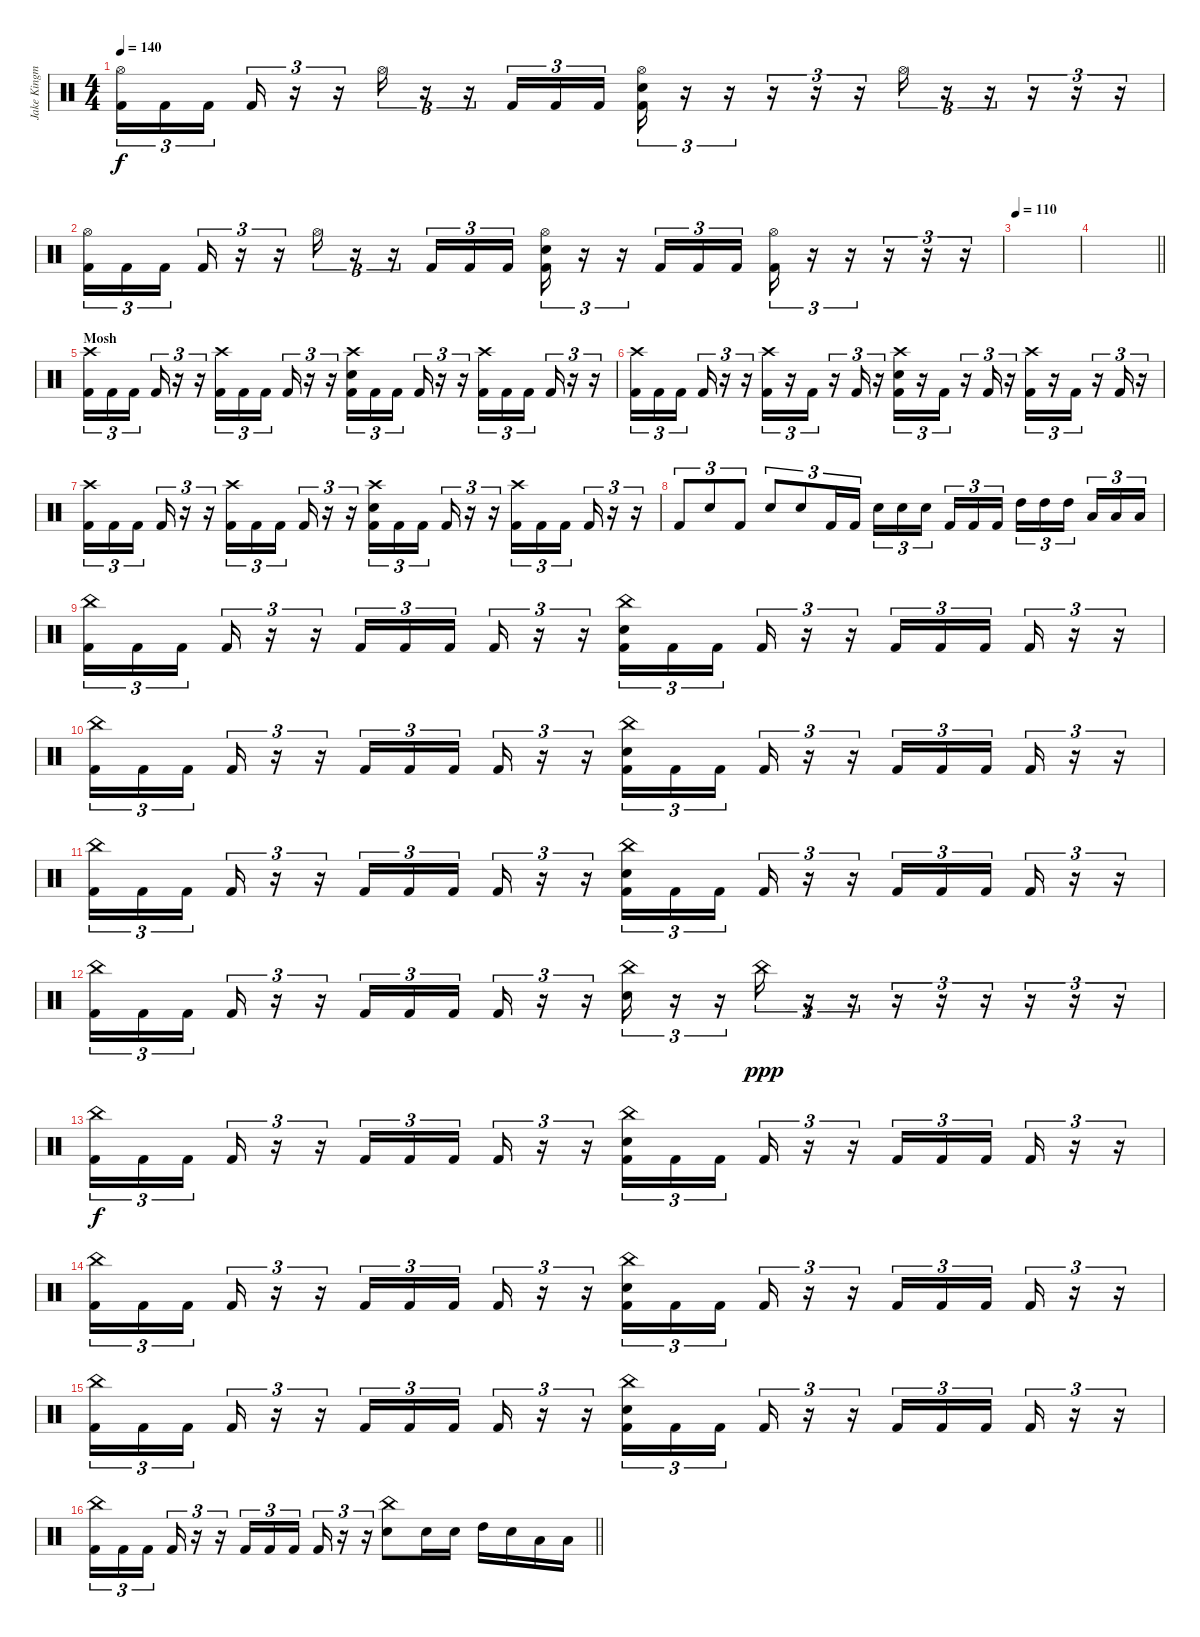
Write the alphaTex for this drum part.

\track ("Jake Kingman (Drums)" "Jake Kingm") {instrument percussion}
\staff {score}
\articulation defaults
\ts (4 4)
\tempo 140
\clef neutral
\ks c
("Hi-Hat (open)" "Kick (hit) 2").16{tu (3 2) dy f} "Kick (hit) 2".16{tu (3 2)} "Kick (hit) 2".16{tu (3 2) beam splitsecondary} "Kick (hit) 2".16{tu (3 2)} r.16{tu (3 2)} r.16{tu (3 2)} "Hi-Hat (open)".16{tu (3 2)} r.16{tu (3 2)} r.16{tu (3 2)} "Kick (hit) 2".16{tu (3 2)} "Kick (hit) 2".16{tu (3 2)} "Kick (hit) 2".16{tu (3 2)} ("Hi-Hat (open)" "Electric Snare (hit)" "Kick (hit) 2").16{tu (3 2)} r.16{tu (3 2)} r.16{tu (3 2)} r.16{tu (3 2)} r.16{tu (3 2)} r.16{tu (3 2)} "Hi-Hat (open)".16{tu (3 2)} r.16{tu (3 2)} r.16{tu (3 2)} r.16{tu (3 2)} r.16{tu (3 2)} r.16{tu (3 2)} |
("Hi-Hat (open)" "Kick (hit) 2").16{tu (3 2)} "Kick (hit) 2".16{tu (3 2)} "Kick (hit) 2".16{tu (3 2) beam splitsecondary} "Kick (hit) 2".16{tu (3 2)} r.16{tu (3 2)} r.16{tu (3 2)} "Hi-Hat (open)".16{tu (3 2)} r.16{tu (3 2)} r.16{tu (3 2)} "Kick (hit) 2".16{tu (3 2)} "Kick (hit) 2".16{tu (3 2)} "Kick (hit) 2".16{tu (3 2)} ("Hi-Hat (open)" "Electric Snare (hit)" "Kick (hit) 2").16{tu (3 2)} r.16{tu (3 2)} r.16{tu (3 2)} "Kick (hit) 2".16{tu (3 2)} "Kick (hit) 2".16{tu (3 2)} "Kick (hit) 2".16{tu (3 2)} ("Hi-Hat (open)" "Kick (hit) 2").16{tu (3 2)} r.16{tu (3 2)} r.16{tu (3 2)} r.16{tu (3 2)} r.16{tu (3 2)} r.16{tu (3 2)} |
\tempo 110
|
\barLineRight lightlight
|
\section ("" "Mosh")
("Crash high (hit)" "Kick (hit) 2").16{tu (3 2)} "Kick (hit) 2".16{tu (3 2)} "Kick (hit) 2".16{tu (3 2) beam splitsecondary} "Kick (hit) 2".16{tu (3 2)} r.16{tu (3 2)} r.16{tu (3 2)} ("Crash high (hit)" "Kick (hit) 2").16{tu (3 2)} "Kick (hit) 2".16{tu (3 2)} "Kick (hit) 2".16{tu (3 2) beam splitsecondary} "Kick (hit) 2".16{tu (3 2)} r.16{tu (3 2)} r.16{tu (3 2)} ("Crash high (hit)" "Electric Snare (hit)" "Kick (hit) 2").16{tu (3 2)} "Kick (hit) 2".16{tu (3 2)} "Kick (hit) 2".16{tu (3 2) beam splitsecondary} "Kick (hit) 2".16{tu (3 2)} r.16{tu (3 2)} r.16{tu (3 2)} ("Crash high (hit)" "Kick (hit) 2").16{tu (3 2)} "Kick (hit) 2".16{tu (3 2)} "Kick (hit) 2".16{tu (3 2) beam splitsecondary} "Kick (hit) 2".16{tu (3 2)} r.16{tu (3 2)} r.16{tu (3 2)} |
("Crash high (hit)" "Kick (hit) 2").16{tu (3 2)} "Kick (hit) 2".16{tu (3 2)} "Kick (hit) 2".16{tu (3 2) beam splitsecondary} "Kick (hit) 2".16{tu (3 2)} r.16{tu (3 2)} r.16{tu (3 2)} ("Crash high (hit)" "Kick (hit) 2").16{tu (3 2)} r.16{tu (3 2)} "Kick (hit) 2".16{tu (3 2)} r.16{tu (3 2)} "Kick (hit) 2".16{tu (3 2)} r.16{tu (3 2)} ("Crash high (hit)" "Electric Snare (hit)" "Kick (hit) 2").16{tu (3 2)} r.16{tu (3 2)} "Kick (hit) 2".16{tu (3 2)} r.16{tu (3 2)} "Kick (hit) 2".16{tu (3 2)} r.16{tu (3 2)} ("Crash high (hit)" "Kick (hit) 2").16{tu (3 2)} r.16{tu (3 2)} "Kick (hit) 2".16{tu (3 2)} r.16{tu (3 2)} "Kick (hit) 2".16{tu (3 2)} r.16{tu (3 2)} |
("Crash high (hit)" "Kick (hit) 2").16{tu (3 2)} "Kick (hit) 2".16{tu (3 2)} "Kick (hit) 2".16{tu (3 2) beam splitsecondary} "Kick (hit) 2".16{tu (3 2)} r.16{tu (3 2)} r.16{tu (3 2)} ("Crash high (hit)" "Kick (hit) 2").16{tu (3 2)} "Kick (hit) 2".16{tu (3 2)} "Kick (hit) 2".16{tu (3 2) beam splitsecondary} "Kick (hit) 2".16{tu (3 2)} r.16{tu (3 2)} r.16{tu (3 2)} ("Crash high (hit)" "Electric Snare (hit)" "Kick (hit) 2").16{tu (3 2)} "Kick (hit) 2".16{tu (3 2)} "Kick (hit) 2".16{tu (3 2) beam splitsecondary} "Kick (hit) 2".16{tu (3 2)} r.16{tu (3 2)} r.16{tu (3 2)} ("Crash high (hit)" "Kick (hit) 2").16{tu (3 2)} "Kick (hit) 2".16{tu (3 2)} "Kick (hit) 2".16{tu (3 2) beam splitsecondary} "Kick (hit) 2".16{tu (3 2)} r.16{tu (3 2)} r.16{tu (3 2)} |
"Kick (hit) 2".8{tu (3 2)} "Electric Snare (hit)".8{tu (3 2)} "Kick (hit) 2".8{tu (3 2)} "Electric Snare (hit)".8{tu (3 2)} "Electric Snare (hit)".8{tu (3 2)} "Kick (hit) 2".16{tu (3 2)} "Kick (hit) 2".16{tu (3 2)} "Electric Snare (hit)".16{tu (3 2)} "Electric Snare (hit)".16{tu (3 2)} "Electric Snare (hit)".16{tu (3 2) beam splitsecondary} "Kick (hit) 2".16{tu (3 2)} "Kick (hit) 2".16{tu (3 2)} "Kick (hit) 2".16{tu (3 2)} "High Tom (hit)".16{tu (3 2)} "High Tom (hit)".16{tu (3 2)} "High Tom (hit)".16{tu (3 2) beam splitsecondary} "Low Tom (hit)".16{tu (3 2)} "Low Tom (hit)".16{tu (3 2)} "Low Tom (hit)".16{tu (3 2)} |
("China (hit)" "Kick (hit) 2").16{tu (3 2)} "Kick (hit) 2".16{tu (3 2)} "Kick (hit) 2".16{tu (3 2) beam splitsecondary} "Kick (hit) 2".16{tu (3 2)} r.16{tu (3 2)} r.16{tu (3 2)} "Kick (hit) 2".16{tu (3 2)} "Kick (hit) 2".16{tu (3 2)} "Kick (hit) 2".16{tu (3 2) beam splitsecondary} "Kick (hit) 2".16{tu (3 2)} r.16{tu (3 2)} r.16{tu (3 2)} ("China (hit)" "Electric Snare (hit)" "Kick (hit) 2").16{tu (3 2)} "Kick (hit) 2".16{tu (3 2)} "Kick (hit) 2".16{tu (3 2) beam splitsecondary} "Kick (hit) 2".16{tu (3 2)} r.16{tu (3 2)} r.16{tu (3 2)} "Kick (hit) 2".16{tu (3 2)} "Kick (hit) 2".16{tu (3 2)} "Kick (hit) 2".16{tu (3 2) beam splitsecondary} "Kick (hit) 2".16{tu (3 2)} r.16{tu (3 2)} r.16{tu (3 2)} |
("China (hit)" "Kick (hit) 2").16{tu (3 2)} "Kick (hit) 2".16{tu (3 2)} "Kick (hit) 2".16{tu (3 2) beam splitsecondary} "Kick (hit) 2".16{tu (3 2)} r.16{tu (3 2)} r.16{tu (3 2)} "Kick (hit) 2".16{tu (3 2)} "Kick (hit) 2".16{tu (3 2)} "Kick (hit) 2".16{tu (3 2) beam splitsecondary} "Kick (hit) 2".16{tu (3 2)} r.16{tu (3 2)} r.16{tu (3 2)} ("China (hit)" "Electric Snare (hit)" "Kick (hit) 2").16{tu (3 2)} "Kick (hit) 2".16{tu (3 2)} "Kick (hit) 2".16{tu (3 2) beam splitsecondary} "Kick (hit) 2".16{tu (3 2)} r.16{tu (3 2)} r.16{tu (3 2)} "Kick (hit) 2".16{tu (3 2)} "Kick (hit) 2".16{tu (3 2)} "Kick (hit) 2".16{tu (3 2) beam splitsecondary} "Kick (hit) 2".16{tu (3 2)} r.16{tu (3 2)} r.16{tu (3 2)} |
("China (hit)" "Kick (hit) 2").16{tu (3 2)} "Kick (hit) 2".16{tu (3 2)} "Kick (hit) 2".16{tu (3 2) beam splitsecondary} "Kick (hit) 2".16{tu (3 2)} r.16{tu (3 2)} r.16{tu (3 2)} "Kick (hit) 2".16{tu (3 2)} "Kick (hit) 2".16{tu (3 2)} "Kick (hit) 2".16{tu (3 2) beam splitsecondary} "Kick (hit) 2".16{tu (3 2)} r.16{tu (3 2)} r.16{tu (3 2)} ("China (hit)" "Electric Snare (hit)" "Kick (hit) 2").16{tu (3 2)} "Kick (hit) 2".16{tu (3 2)} "Kick (hit) 2".16{tu (3 2) beam splitsecondary} "Kick (hit) 2".16{tu (3 2)} r.16{tu (3 2)} r.16{tu (3 2)} "Kick (hit) 2".16{tu (3 2)} "Kick (hit) 2".16{tu (3 2)} "Kick (hit) 2".16{tu (3 2) beam splitsecondary} "Kick (hit) 2".16{tu (3 2)} r.16{tu (3 2)} r.16{tu (3 2)} |
("China (hit)" "Kick (hit) 2").16{tu (3 2)} "Kick (hit) 2".16{tu (3 2)} "Kick (hit) 2".16{tu (3 2) beam splitsecondary} "Kick (hit) 2".16{tu (3 2)} r.16{tu (3 2)} r.16{tu (3 2)} "Kick (hit) 2".16{tu (3 2)} "Kick (hit) 2".16{tu (3 2)} "Kick (hit) 2".16{tu (3 2) beam splitsecondary} "Kick (hit) 2".16{tu (3 2)} r.16{tu (3 2)} r.16{tu (3 2)} ("China (hit)" "Electric Snare (hit)").16{tu (3 2)} r.16{tu (3 2)} r.16{tu (3 2)} "China (hit)".16{tu (3 2) dy ppp} r.16{tu (3 2)} r.16{tu (3 2)} r.16{tu (3 2)} r.16{tu (3 2)} r.16{tu (3 2)} r.16{tu (3 2)} r.16{tu (3 2)} r.16{tu (3 2)} |
("China (hit)" "Kick (hit) 2").16{tu (3 2) dy f} "Kick (hit) 2".16{tu (3 2)} "Kick (hit) 2".16{tu (3 2) beam splitsecondary} "Kick (hit) 2".16{tu (3 2)} r.16{tu (3 2)} r.16{tu (3 2)} "Kick (hit) 2".16{tu (3 2)} "Kick (hit) 2".16{tu (3 2)} "Kick (hit) 2".16{tu (3 2) beam splitsecondary} "Kick (hit) 2".16{tu (3 2)} r.16{tu (3 2)} r.16{tu (3 2)} ("China (hit)" "Electric Snare (hit)" "Kick (hit) 2").16{tu (3 2)} "Kick (hit) 2".16{tu (3 2)} "Kick (hit) 2".16{tu (3 2) beam splitsecondary} "Kick (hit) 2".16{tu (3 2)} r.16{tu (3 2)} r.16{tu (3 2)} "Kick (hit) 2".16{tu (3 2)} "Kick (hit) 2".16{tu (3 2)} "Kick (hit) 2".16{tu (3 2) beam splitsecondary} "Kick (hit) 2".16{tu (3 2)} r.16{tu (3 2)} r.16{tu (3 2)} |
("China (hit)" "Kick (hit) 2").16{tu (3 2)} "Kick (hit) 2".16{tu (3 2)} "Kick (hit) 2".16{tu (3 2) beam splitsecondary} "Kick (hit) 2".16{tu (3 2)} r.16{tu (3 2)} r.16{tu (3 2)} "Kick (hit) 2".16{tu (3 2)} "Kick (hit) 2".16{tu (3 2)} "Kick (hit) 2".16{tu (3 2) beam splitsecondary} "Kick (hit) 2".16{tu (3 2)} r.16{tu (3 2)} r.16{tu (3 2)} ("China (hit)" "Electric Snare (hit)" "Kick (hit) 2").16{tu (3 2)} "Kick (hit) 2".16{tu (3 2)} "Kick (hit) 2".16{tu (3 2) beam splitsecondary} "Kick (hit) 2".16{tu (3 2)} r.16{tu (3 2)} r.16{tu (3 2)} "Kick (hit) 2".16{tu (3 2)} "Kick (hit) 2".16{tu (3 2)} "Kick (hit) 2".16{tu (3 2) beam splitsecondary} "Kick (hit) 2".16{tu (3 2)} r.16{tu (3 2)} r.16{tu (3 2)} |
("China (hit)" "Kick (hit) 2").16{tu (3 2)} "Kick (hit) 2".16{tu (3 2)} "Kick (hit) 2".16{tu (3 2) beam splitsecondary} "Kick (hit) 2".16{tu (3 2)} r.16{tu (3 2)} r.16{tu (3 2)} "Kick (hit) 2".16{tu (3 2)} "Kick (hit) 2".16{tu (3 2)} "Kick (hit) 2".16{tu (3 2) beam splitsecondary} "Kick (hit) 2".16{tu (3 2)} r.16{tu (3 2)} r.16{tu (3 2)} ("China (hit)" "Electric Snare (hit)" "Kick (hit) 2").16{tu (3 2)} "Kick (hit) 2".16{tu (3 2)} "Kick (hit) 2".16{tu (3 2) beam splitsecondary} "Kick (hit) 2".16{tu (3 2)} r.16{tu (3 2)} r.16{tu (3 2)} "Kick (hit) 2".16{tu (3 2)} "Kick (hit) 2".16{tu (3 2)} "Kick (hit) 2".16{tu (3 2) beam splitsecondary} "Kick (hit) 2".16{tu (3 2)} r.16{tu (3 2)} r.16{tu (3 2)} |
\barLineRight lightlight
("China (hit)" "Kick (hit) 2").16{tu (3 2)} "Kick (hit) 2".16{tu (3 2)} "Kick (hit) 2".16{tu (3 2) beam splitsecondary} "Kick (hit) 2".16{tu (3 2)} r.16{tu (3 2)} r.16{tu (3 2)} "Kick (hit) 2".16{tu (3 2)} "Kick (hit) 2".16{tu (3 2)} "Kick (hit) 2".16{tu (3 2) beam splitsecondary} "Kick (hit) 2".16{tu (3 2)} r.16{tu (3 2)} r.16{tu (3 2)} ("China (hit)" "Electric Snare (hit)").8 "Electric Snare (hit)".16 "Electric Snare (hit)".16 "High Tom (hit)".16 "Electric Snare (hit)".16 "Low Tom (hit)".16 "Low Floor Tom (hit)".16
